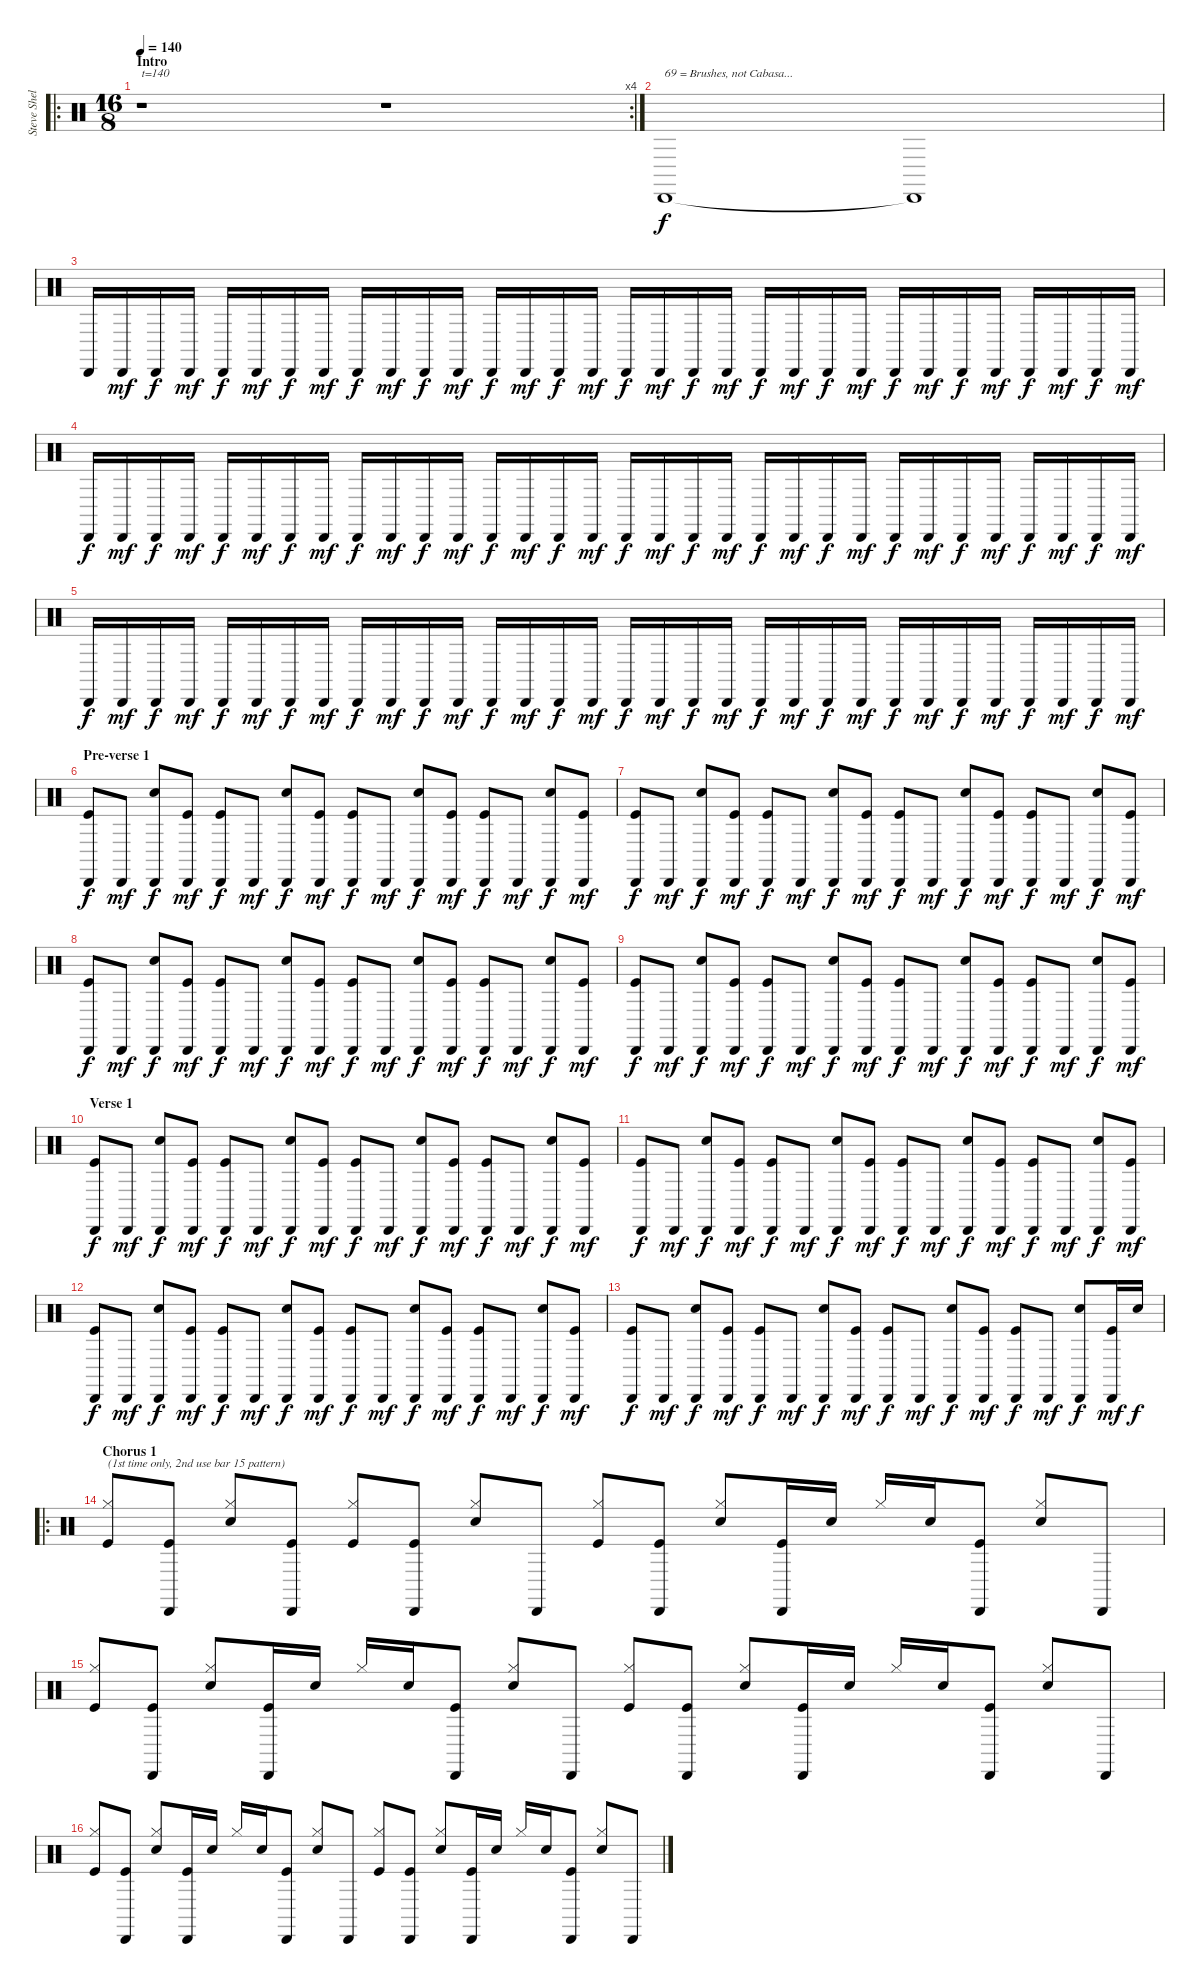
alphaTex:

\track ("Steve Shelley" "Steve Shel") {instrument percussion}
\staff {score}
\articulation defaults
\ro
\rc 4
\ts (16 8)
\section ("" "Intro")
\tempo 140
\clef neutral
\ks c
r.1{txt "t=140" dy f} r.1 |
"Cabasa (hit)".1{txt "69 = Brushes, not Cabasa..."} "Cabasa (hit)"{t}.1 |
"Cabasa (hit)".16 "Cabasa (hit)".16{dy mf} "Cabasa (hit)".16{dy f} "Cabasa (hit)".16{dy mf} "Cabasa (hit)".16{dy f} "Cabasa (hit)".16{dy mf} "Cabasa (hit)".16{dy f} "Cabasa (hit)".16{dy mf} "Cabasa (hit)".16{dy f} "Cabasa (hit)".16{dy mf} "Cabasa (hit)".16{dy f} "Cabasa (hit)".16{dy mf} "Cabasa (hit)".16{dy f} "Cabasa (hit)".16{dy mf} "Cabasa (hit)".16{dy f} "Cabasa (hit)".16{dy mf} "Cabasa (hit)".16{dy f} "Cabasa (hit)".16{dy mf} "Cabasa (hit)".16{dy f} "Cabasa (hit)".16{dy mf} "Cabasa (hit)".16{dy f} "Cabasa (hit)".16{dy mf} "Cabasa (hit)".16{dy f} "Cabasa (hit)".16{dy mf} "Cabasa (hit)".16{dy f} "Cabasa (hit)".16{dy mf} "Cabasa (hit)".16{dy f} "Cabasa (hit)".16{dy mf} "Cabasa (hit)".16{dy f} "Cabasa (hit)".16{dy mf} "Cabasa (hit)".16{dy f} "Cabasa (hit)".16{dy mf} |
"Cabasa (hit)".16{dy f} "Cabasa (hit)".16{dy mf} "Cabasa (hit)".16{dy f} "Cabasa (hit)".16{dy mf} "Cabasa (hit)".16{dy f} "Cabasa (hit)".16{dy mf} "Cabasa (hit)".16{dy f} "Cabasa (hit)".16{dy mf} "Cabasa (hit)".16{dy f} "Cabasa (hit)".16{dy mf} "Cabasa (hit)".16{dy f} "Cabasa (hit)".16{dy mf} "Cabasa (hit)".16{dy f} "Cabasa (hit)".16{dy mf} "Cabasa (hit)".16{dy f} "Cabasa (hit)".16{dy mf} "Cabasa (hit)".16{dy f} "Cabasa (hit)".16{dy mf} "Cabasa (hit)".16{dy f} "Cabasa (hit)".16{dy mf} "Cabasa (hit)".16{dy f} "Cabasa (hit)".16{dy mf} "Cabasa (hit)".16{dy f} "Cabasa (hit)".16{dy mf} "Cabasa (hit)".16{dy f} "Cabasa (hit)".16{dy mf} "Cabasa (hit)".16{dy f} "Cabasa (hit)".16{dy mf} "Cabasa (hit)".16{dy f} "Cabasa (hit)".16{dy mf} "Cabasa (hit)".16{dy f} "Cabasa (hit)".16{dy mf} |
"Cabasa (hit)".16{dy f} "Cabasa (hit)".16{dy mf} "Cabasa (hit)".16{dy f} "Cabasa (hit)".16{dy mf} "Cabasa (hit)".16{dy f} "Cabasa (hit)".16{dy mf} "Cabasa (hit)".16{dy f} "Cabasa (hit)".16{dy mf} "Cabasa (hit)".16{dy f} "Cabasa (hit)".16{dy mf} "Cabasa (hit)".16{dy f} "Cabasa (hit)".16{dy mf} "Cabasa (hit)".16{dy f} "Cabasa (hit)".16{dy mf} "Cabasa (hit)".16{dy f} "Cabasa (hit)".16{dy mf} "Cabasa (hit)".16{dy f} "Cabasa (hit)".16{dy mf} "Cabasa (hit)".16{dy f} "Cabasa (hit)".16{dy mf} "Cabasa (hit)".16{dy f} "Cabasa (hit)".16{dy mf} "Cabasa (hit)".16{dy f} "Cabasa (hit)".16{dy mf} "Cabasa (hit)".16{dy f} "Cabasa (hit)".16{dy mf} "Cabasa (hit)".16{dy f} "Cabasa (hit)".16{dy mf} "Cabasa (hit)".16{dy f} "Cabasa (hit)".16{dy mf} "Cabasa (hit)".16{dy f} "Cabasa (hit)".16{dy mf} |
\section ("" "Pre-verse 1")
("Cabasa (hit)" "Kick (hit)").8{dy f} "Cabasa (hit)".8{dy mf} ("Cabasa (hit)" "Electric Snare (hit)").8{dy f} ("Cabasa (hit)" "Kick (hit)").8{dy mf} ("Cabasa (hit)" "Kick (hit)").8{dy f} "Cabasa (hit)".8{dy mf} ("Cabasa (hit)" "Electric Snare (hit)").8{dy f} ("Cabasa (hit)" "Kick (hit)").8{dy mf} ("Cabasa (hit)" "Kick (hit)").8{dy f} "Cabasa (hit)".8{dy mf} ("Cabasa (hit)" "Electric Snare (hit)").8{dy f} ("Cabasa (hit)" "Kick (hit)").8{dy mf} ("Cabasa (hit)" "Kick (hit)").8{dy f} "Cabasa (hit)".8{dy mf} ("Cabasa (hit)" "Electric Snare (hit)").8{dy f} ("Cabasa (hit)" "Kick (hit)").8{dy mf} |
("Cabasa (hit)" "Kick (hit)").8{dy f} "Cabasa (hit)".8{dy mf} ("Cabasa (hit)" "Electric Snare (hit)").8{dy f} ("Cabasa (hit)" "Kick (hit)").8{dy mf} ("Cabasa (hit)" "Kick (hit)").8{dy f} "Cabasa (hit)".8{dy mf} ("Cabasa (hit)" "Electric Snare (hit)").8{dy f} ("Cabasa (hit)" "Kick (hit)").8{dy mf} ("Cabasa (hit)" "Kick (hit)").8{dy f} "Cabasa (hit)".8{dy mf} ("Cabasa (hit)" "Electric Snare (hit)").8{dy f} ("Cabasa (hit)" "Kick (hit)").8{dy mf} ("Cabasa (hit)" "Kick (hit)").8{dy f} "Cabasa (hit)".8{dy mf} ("Cabasa (hit)" "Electric Snare (hit)").8{dy f} ("Cabasa (hit)" "Kick (hit)").8{dy mf} |
("Cabasa (hit)" "Kick (hit)").8{dy f} "Cabasa (hit)".8{dy mf} ("Cabasa (hit)" "Electric Snare (hit)").8{dy f} ("Cabasa (hit)" "Kick (hit)").8{dy mf} ("Cabasa (hit)" "Kick (hit)").8{dy f} "Cabasa (hit)".8{dy mf} ("Cabasa (hit)" "Electric Snare (hit)").8{dy f} ("Cabasa (hit)" "Kick (hit)").8{dy mf} ("Cabasa (hit)" "Kick (hit)").8{dy f} "Cabasa (hit)".8{dy mf} ("Cabasa (hit)" "Electric Snare (hit)").8{dy f} ("Cabasa (hit)" "Kick (hit)").8{dy mf} ("Cabasa (hit)" "Kick (hit)").8{dy f} "Cabasa (hit)".8{dy mf} ("Cabasa (hit)" "Electric Snare (hit)").8{dy f} ("Cabasa (hit)" "Kick (hit)").8{dy mf} |
("Cabasa (hit)" "Kick (hit)").8{dy f} "Cabasa (hit)".8{dy mf} ("Cabasa (hit)" "Electric Snare (hit)").8{dy f} ("Cabasa (hit)" "Kick (hit)").8{dy mf} ("Cabasa (hit)" "Kick (hit)").8{dy f} "Cabasa (hit)".8{dy mf} ("Cabasa (hit)" "Electric Snare (hit)").8{dy f} ("Cabasa (hit)" "Kick (hit)").8{dy mf} ("Cabasa (hit)" "Kick (hit)").8{dy f} "Cabasa (hit)".8{dy mf} ("Cabasa (hit)" "Electric Snare (hit)").8{dy f} ("Cabasa (hit)" "Kick (hit)").8{dy mf} ("Cabasa (hit)" "Kick (hit)").8{dy f} "Cabasa (hit)".8{dy mf} ("Cabasa (hit)" "Electric Snare (hit)").8{dy f} ("Cabasa (hit)" "Kick (hit)").8{dy mf} |
\section ("" "Verse 1")
("Cabasa (hit)" "Kick (hit)").8{dy f} "Cabasa (hit)".8{dy mf} ("Cabasa (hit)" "Electric Snare (hit)").8{dy f} ("Cabasa (hit)" "Kick (hit)").8{dy mf} ("Cabasa (hit)" "Kick (hit)").8{dy f} "Cabasa (hit)".8{dy mf} ("Cabasa (hit)" "Electric Snare (hit)").8{dy f} ("Cabasa (hit)" "Kick (hit)").8{dy mf} ("Cabasa (hit)" "Kick (hit)").8{dy f} "Cabasa (hit)".8{dy mf} ("Cabasa (hit)" "Electric Snare (hit)").8{dy f} ("Cabasa (hit)" "Kick (hit)").8{dy mf} ("Cabasa (hit)" "Kick (hit)").8{dy f} "Cabasa (hit)".8{dy mf} ("Cabasa (hit)" "Electric Snare (hit)").8{dy f} ("Cabasa (hit)" "Kick (hit)").8{dy mf} |
("Cabasa (hit)" "Kick (hit)").8{dy f} "Cabasa (hit)".8{dy mf} ("Cabasa (hit)" "Electric Snare (hit)").8{dy f} ("Cabasa (hit)" "Kick (hit)").8{dy mf} ("Cabasa (hit)" "Kick (hit)").8{dy f} "Cabasa (hit)".8{dy mf} ("Cabasa (hit)" "Electric Snare (hit)").8{dy f} ("Cabasa (hit)" "Kick (hit)").8{dy mf} ("Cabasa (hit)" "Kick (hit)").8{dy f} "Cabasa (hit)".8{dy mf} ("Cabasa (hit)" "Electric Snare (hit)").8{dy f} ("Cabasa (hit)" "Kick (hit)").8{dy mf} ("Cabasa (hit)" "Kick (hit)").8{dy f} "Cabasa (hit)".8{dy mf} ("Cabasa (hit)" "Electric Snare (hit)").8{dy f} ("Cabasa (hit)" "Kick (hit)").8{dy mf} |
("Cabasa (hit)" "Kick (hit)").8{dy f} "Cabasa (hit)".8{dy mf} ("Cabasa (hit)" "Electric Snare (hit)").8{dy f} ("Cabasa (hit)" "Kick (hit)").8{dy mf} ("Cabasa (hit)" "Kick (hit)").8{dy f} "Cabasa (hit)".8{dy mf} ("Cabasa (hit)" "Electric Snare (hit)").8{dy f} ("Cabasa (hit)" "Kick (hit)").8{dy mf} ("Cabasa (hit)" "Kick (hit)").8{dy f} "Cabasa (hit)".8{dy mf} ("Cabasa (hit)" "Electric Snare (hit)").8{dy f} ("Cabasa (hit)" "Kick (hit)").8{dy mf} ("Cabasa (hit)" "Kick (hit)").8{dy f} "Cabasa (hit)".8{dy mf} ("Cabasa (hit)" "Electric Snare (hit)").8{dy f} ("Cabasa (hit)" "Kick (hit)").8{dy mf} |
("Cabasa (hit)" "Kick (hit)").8{dy f} "Cabasa (hit)".8{dy mf} ("Cabasa (hit)" "Electric Snare (hit)").8{dy f} ("Cabasa (hit)" "Kick (hit)").8{dy mf} ("Cabasa (hit)" "Kick (hit)").8{dy f} "Cabasa (hit)".8{dy mf} ("Cabasa (hit)" "Electric Snare (hit)").8{dy f} ("Cabasa (hit)" "Kick (hit)").8{dy mf} ("Cabasa (hit)" "Kick (hit)").8{dy f} "Cabasa (hit)".8{dy mf} ("Cabasa (hit)" "Electric Snare (hit)").8{dy f} ("Cabasa (hit)" "Kick (hit)").8{dy mf} ("Cabasa (hit)" "Kick (hit)").8{dy f} "Cabasa (hit)".8{dy mf} ("Cabasa (hit)" "Electric Snare (hit)").8{dy f} ("Cabasa (hit)" "Kick (hit)").16{dy mf} "Electric Snare (hit)".16{dy f} |
\ro
\section ("" "Chorus 1")
("Hi-Hat (closed)" "Kick (hit)").8{txt "(1st time only, 2nd use bar 15 pattern)"} ("Cabasa (hit)" "Kick (hit)").8 ("Hi-Hat (closed)" "Electric Snare (hit)").8 ("Cabasa (hit)" "Kick (hit)").8 ("Hi-Hat (closed)" "Kick (hit)").8 ("Cabasa (hit)" "Kick (hit)").8 ("Hi-Hat (closed)" "Electric Snare (hit)").8 "Cabasa (hit)".8 ("Hi-Hat (closed)" "Kick (hit)").8 ("Cabasa (hit)" "Kick (hit)").8 ("Hi-Hat (closed)" "Electric Snare (hit)").8 ("Cabasa (hit)" "Kick (hit)").16 "Electric Snare (hit)".16 "Hi-Hat (closed)".16 "Electric Snare (hit)".16 ("Cabasa (hit)" "Kick (hit)").8 ("Hi-Hat (closed)" "Electric Snare (hit)").8 "Cabasa (hit)".8 |
("Hi-Hat (closed)" "Kick (hit)").8 ("Cabasa (hit)" "Kick (hit)").8 ("Hi-Hat (closed)" "Electric Snare (hit)").8 ("Cabasa (hit)" "Kick (hit)").16 "Electric Snare (hit)".16 "Hi-Hat (closed)".16 "Electric Snare (hit)".16 ("Cabasa (hit)" "Kick (hit)").8 ("Hi-Hat (closed)" "Electric Snare (hit)").8 "Cabasa (hit)".8 ("Hi-Hat (closed)" "Kick (hit)").8 ("Cabasa (hit)" "Kick (hit)").8 ("Hi-Hat (closed)" "Electric Snare (hit)").8 ("Cabasa (hit)" "Kick (hit)").16 "Electric Snare (hit)".16 "Hi-Hat (closed)".16 "Electric Snare (hit)".16 ("Cabasa (hit)" "Kick (hit)").8 ("Hi-Hat (closed)" "Electric Snare (hit)").8 "Cabasa (hit)".8 |
("Hi-Hat (closed)" "Kick (hit)").8 ("Cabasa (hit)" "Kick (hit)").8 ("Hi-Hat (closed)" "Electric Snare (hit)").8 ("Cabasa (hit)" "Kick (hit)").16 "Electric Snare (hit)".16 "Hi-Hat (closed)".16 "Electric Snare (hit)".16 ("Cabasa (hit)" "Kick (hit)").8 ("Hi-Hat (closed)" "Electric Snare (hit)").8 "Cabasa (hit)".8 ("Hi-Hat (closed)" "Kick (hit)").8 ("Cabasa (hit)" "Kick (hit)").8 ("Hi-Hat (closed)" "Electric Snare (hit)").8 ("Cabasa (hit)" "Kick (hit)").16 "Electric Snare (hit)".16 "Hi-Hat (closed)".16 "Electric Snare (hit)".16 ("Cabasa (hit)" "Kick (hit)").8 ("Hi-Hat (closed)" "Electric Snare (hit)").8 "Cabasa (hit)".8
